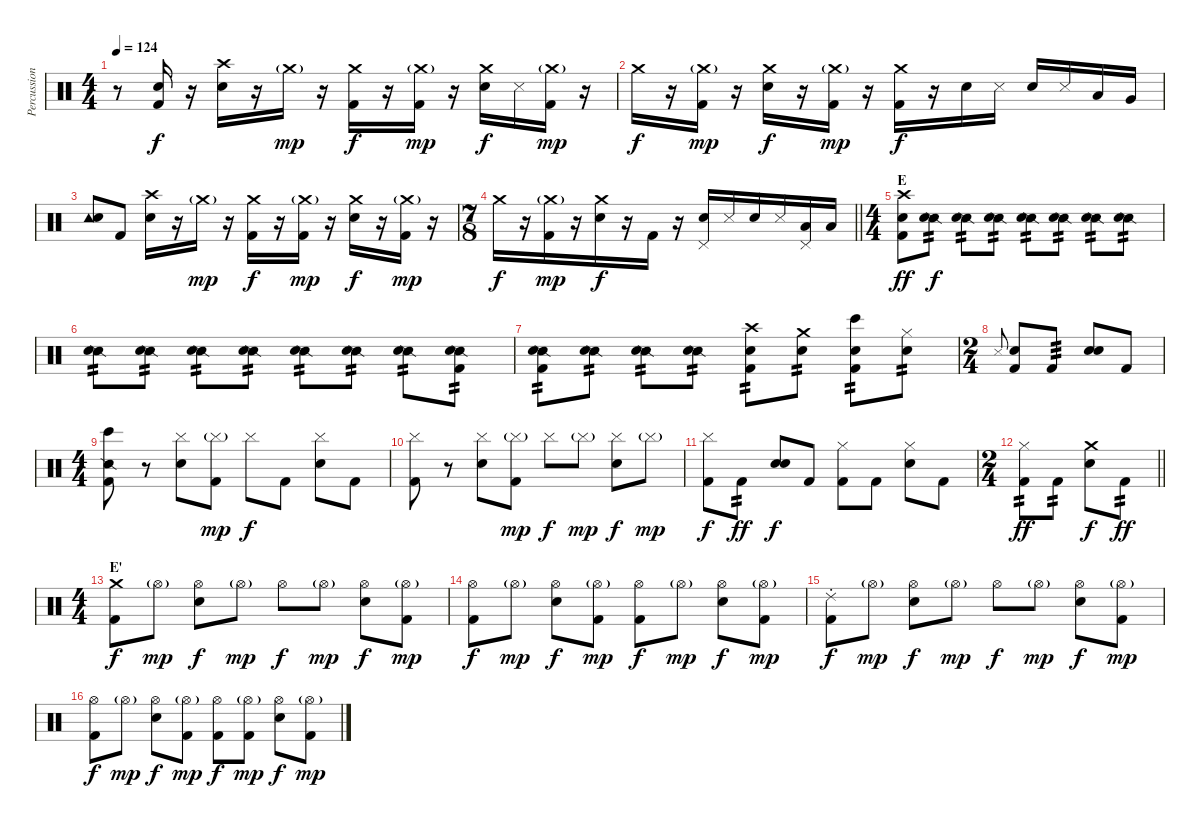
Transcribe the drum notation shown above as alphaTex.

\track ("Percussion" "Percussion") {instrument percussion}
\staff {score}
\articulation defaults
\ts (4 4)
\tempo 124
\clef neutral
\ks c
r.8{dy f} ("Snare (hit)" "Kick (hit) 2").16 r.16 ("Crash high (hit)" "Snare (hit) 2").16 r.16 "Crash medium (hit)"{g}.16{dy mp} r.16 ("Crash medium (hit)" "Kick (hit) 2").16{dy f} r.16 ("Crash medium (hit)"{g} "Kick (hit) 2").16{dy mp} r.16 ("Crash medium (hit)" "Snare (hit) 2").16{dy f} "Metronome (hit)".16 ("Crash medium (hit)"{g} "Kick (hit) 2").16{dy mp} r.16 |
"Crash medium (hit)".16{dy f} r.16 ("Crash medium (hit)"{g} "Kick (hit) 2").16{dy mp} r.16 ("Crash medium (hit)" "Snare (hit) 2").16{dy f} r.16 ("Crash medium (hit)"{g} "Kick (hit) 2").16{dy mp} r.16 ("Crash medium (hit)" "Kick (hit) 2").16{dy f} r.16 "Snare (hit) 2".16 "Metronome (hit)".16 "Snare (hit) 2".16 "Metronome (hit)".16 "Low Tom (hit)".16 "Very Low Tom (hit)".16 |
("Tambourine (hit)" "Snare (hit) 2").8 "Kick (hit) 2".8 ("Crash high (hit)" "Snare (hit) 2").16 r.16 "Crash medium (hit)"{g}.16{dy mp} r.16 ("Crash medium (hit)" "Kick (hit) 2").16{dy f} r.16 ("Crash medium (hit)"{g} "Kick (hit) 2").16{dy mp} r.16 ("Crash medium (hit)" "Snare (hit) 2").16{dy f} r.16 ("Crash medium (hit)"{g} "Kick (hit) 2").16{dy mp} r.16 |
\ts (7 8)
\barLineRight lightlight "Crash medium (hit)".16{dy f}
r.16 ("Crash medium (hit)"{g} "Kick (hit) 2").16{dy mp} r.16 ("Crash medium (hit)" "Snare (hit) 2").16{dy f} r.16 "Kick (hit) 2".16 r.16 ("Pedal Hi-Hat (hit)" "Snare (hit) 2").16 "Metronome (hit)".16 "Snare (hit) 2".16 "Metronome (hit)".16 ("Pedal Hi-Hat (hit)" "Low Tom (hit)").16 "Low Tom (hit)".16 |
\ts (4 4)
\section ("" "E")
("Crash high (hit)" "Snare (hit) 2" "Kick (hit) 2").8{dy ff} ("Snare (side stick) 2" "Snare (hit) 2").8{tp 2 dy f} ("Snare (side stick) 2" "Snare (hit) 2").8{tp 2} ("Snare (side stick) 2" "Snare (hit) 2").8{tp 2} ("Snare (side stick) 2" "Snare (hit) 2").8{tp 2} ("Snare (side stick) 2" "Snare (hit) 2").8{tp 2} ("Snare (side stick) 2" "Snare (hit) 2").8{tp 2} ("Snare (side stick) 2" "Snare (hit) 2").8{tp 2} |
("Snare (side stick) 2" "Snare (hit) 2").8{tp 2} ("Snare (side stick) 2" "Snare (hit) 2").8{tp 2} ("Snare (side stick) 2" "Snare (hit) 2").8{tp 2} ("Snare (side stick) 2" "Snare (hit) 2").8{tp 2} ("Snare (side stick) 2" "Snare (hit) 2").8{tp 2} ("Snare (side stick) 2" "Snare (hit) 2").8{tp 2} ("Snare (side stick) 2" "Snare (hit) 2").8{tp 2} ("Snare (side stick) 2" "Snare (hit) 2" "Kick (hit) 2").8{tp 2} |
("Snare (side stick) 2" "Snare (hit) 2" "Kick (hit) 2").8{tp 2} ("Snare (side stick) 2" "Snare (hit) 2").8{tp 2} ("Snare (side stick) 2" "Snare (hit) 2").8{tp 2} ("Snare (side stick) 2" "Snare (hit) 2").8{tp 2} ("Crash high (hit)" "Snare (hit) 2" "Kick (hit) 2").8{tp 2} ("Crash medium (hit)" "Snare (hit) 2").8{tp 2} ("Bongo High (hit)" "Snare (hit) 2" "Kick (hit) 2").8{tp 2} ("Hi-Hat (closed)" "Snare (hit) 2").8{tp 2} |
\ts (2 4)
"Metronome (hit)".8{gr onbeat} ("Snare (hit) 2" "Kick (hit) 2").8 "Kick (hit) 2".8{tp 3} ("Snare (hit)" "Snare (hit) 2").8 "Kick (hit) 2".8 |
\ts (4 4)
("Snare (side stick) 2" "Bongo High (hit)" "Kick (hit) 2").8 r.8 ("Cymbal (hit)" "Snare (hit) 2").8 ("Cymbal (hit)"{g} "Kick (hit) 2").8{dy mp} "Cymbal (hit)".8{dy f} "Kick (hit) 2".8 ("Cymbal (hit)" "Snare (hit) 2").8 "Kick (hit) 2".8 |
("Cymbal (hit)" "Kick (hit) 2").8 r.8 ("Cymbal (hit)" "Snare (hit) 2").8 ("Cymbal (hit)"{g} "Kick (hit) 2").8{dy mp} "Cymbal (hit)".8{dy f} "Cymbal (hit)"{g}.8{dy mp} ("Cymbal (hit)" "Snare (hit) 2").8{dy f} "Cymbal (hit)"{g}.8{dy mp} |
("Cymbal (hit)" "Kick (hit) 2").8{dy f} "Kick (hit) 2".8{tp 2 dy ff} ("Snare (hit)" "Snare (hit) 2").8{dy f} "Kick (hit) 2".8 ("Hi-Hat (closed)" "Kick (hit) 2").8 "Kick (hit) 2".8 ("Hi-Hat (closed)" "Snare (hit) 2").8 "Kick (hit) 2".8 |
\ts (2 4)
\barLineRight lightlight
("Hi-Hat (closed)" "Kick (hit) 2").8{tp 2 dy ff} "Kick (hit) 2".8{tp 2} ("Crash medium (hit)" "Snare (hit) 2").8{dy f} "Kick (hit) 2".8{tp 2 dy ff} |
\ts (4 4)
\section ("" "E'")
("Crash medium (hit)" "Kick (hit) 2").8{dy f} "Hi-Hat (open)"{g}.8{dy mp} ("Hi-Hat (open)" "Snare (hit) 2").8{dy f} "Hi-Hat (open)"{g}.8{dy mp} "Hi-Hat (open)".8{dy f} "Hi-Hat (open)"{g}.8{dy mp} ("Hi-Hat (open)" "Snare (hit) 2").8{dy f} ("Hi-Hat (open)"{g} "Kick (hit) 2").8{dy mp} |
("Hi-Hat (open)" "Kick (hit) 2").8{dy f} "Hi-Hat (open)"{g}.8{dy mp} ("Hi-Hat (open)" "Snare (hit) 2").8{dy f} ("Hi-Hat (open)"{g} "Kick (hit) 2").8{dy mp} ("Hi-Hat (open)" "Kick (hit) 2").8{dy f} "Hi-Hat (open)"{g}.8{dy mp} ("Hi-Hat (open)" "Snare (hit) 2").8{dy f} ("Hi-Hat (open)"{g} "Kick (hit) 2").8{dy mp} |
("Ride (choke) 2" "Kick (hit) 2").8{dy f} "Hi-Hat (open)"{g}.8{dy mp} ("Hi-Hat (open)" "Snare (hit) 2").8{dy f} "Hi-Hat (open)"{g}.8{dy mp} "Hi-Hat (open)".8{dy f} "Hi-Hat (open)"{g}.8{dy mp} ("Hi-Hat (open)" "Snare (hit) 2").8{dy f} ("Hi-Hat (open)"{g} "Kick (hit) 2").8{dy mp} |
("Hi-Hat (open)" "Kick (hit) 2").8{dy f} "Hi-Hat (open)"{g}.8{dy mp} ("Hi-Hat (open)" "Snare (hit) 2").8{dy f} ("Hi-Hat (open)"{g} "Kick (hit) 2").8{dy mp} ("Hi-Hat (open)" "Kick (hit) 2").8{dy f} ("Hi-Hat (open)"{g} "Kick (hit) 2").8{dy mp} ("Hi-Hat (open)" "Snare (hit) 2").8{dy f} ("Hi-Hat (open)"{g} "Kick (hit) 2").8{dy mp}
